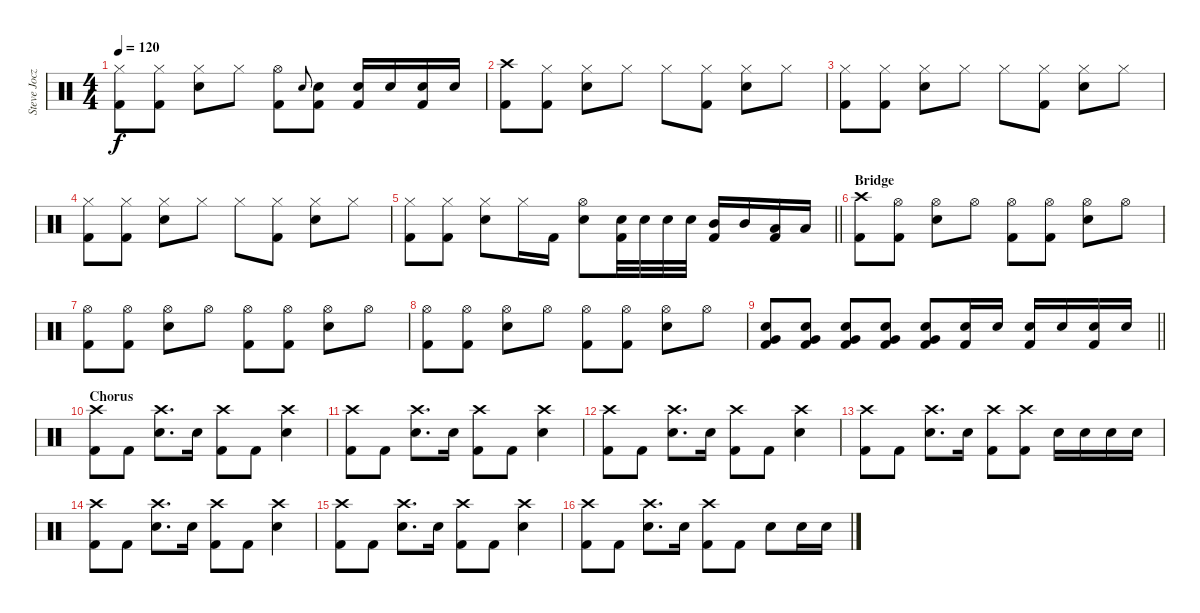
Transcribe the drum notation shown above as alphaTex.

\track ("Steve Jocz" "Steve Jocz") {instrument percussion}
\staff {score}
\articulation defaults
\ts (4 4)
\tempo 120
\clef neutral
\ks c
("Hi-Hat (closed)" "Kick (hit) 2").8{dy f} ("Hi-Hat (closed)" "Kick (hit) 2").8 ("Hi-Hat (closed)" "Snare (hit) 2").8 "Hi-Hat (closed)".8 ("Hi-Hat (open)" "Kick (hit) 2").8 "Snare (hit) 2".8{gr onbeat} ("Snare (hit) 2" "Kick (hit) 2").8 ("Snare (hit) 2" "Kick (hit) 2").16 "Snare (hit) 2".16 ("Snare (hit) 2" "Kick (hit) 2").16 "Snare (hit) 2".16 |
("Crash high (hit)" "Kick (hit) 2").8 ("Hi-Hat (closed)" "Kick (hit) 2").8 ("Hi-Hat (closed)" "Snare (hit) 2").8 "Hi-Hat (closed)".8 "Hi-Hat (closed)".8 ("Hi-Hat (closed)" "Kick (hit) 2").8 ("Hi-Hat (closed)" "Snare (hit) 2").8 "Hi-Hat (closed)".8 |
("Hi-Hat (closed)" "Kick (hit) 2").8 ("Hi-Hat (closed)" "Kick (hit) 2").8 ("Hi-Hat (closed)" "Snare (hit) 2").8 "Hi-Hat (closed)".8 "Hi-Hat (closed)".8 ("Hi-Hat (closed)" "Kick (hit) 2").8 ("Hi-Hat (closed)" "Snare (hit) 2").8 "Hi-Hat (closed)".8 |
("Hi-Hat (closed)" "Kick (hit) 2").8 ("Hi-Hat (closed)" "Kick (hit) 2").8 ("Hi-Hat (closed)" "Snare (hit) 2").8 "Hi-Hat (closed)".8 "Hi-Hat (closed)".8 ("Hi-Hat (closed)" "Kick (hit) 2").8 ("Hi-Hat (closed)" "Snare (hit) 2").8 "Hi-Hat (closed)".8 |
\barLineRight lightlight
("Hi-Hat (closed)" "Kick (hit) 2").8 ("Hi-Hat (closed)" "Kick (hit) 2").8 ("Hi-Hat (closed)" "Snare (hit) 2").8 "Hi-Hat (closed)".16 "Kick (hit) 2".16 ("Hi-Hat (open)" "Snare (hit) 2").8 ("Snare (hit) 2" "Kick (hit) 2").32 "Snare (hit) 2".32 "Snare (hit) 2".32 "Snare (hit) 2".32 ("Mid Tom (hit)" "Kick (hit) 2").16 "Mid Tom (hit)".16 ("Low Tom (hit)" "Kick (hit) 2").16 "Low Tom (hit)".16 |
\section ("" "Bridge")
("Crash high (hit)" "Kick (hit) 2").8 ("Hi-Hat (open)" "Kick (hit) 2").8 ("Hi-Hat (open)" "Snare (hit) 2").8 "Hi-Hat (open)".8 ("Hi-Hat (open)" "Kick (hit) 2").8 ("Hi-Hat (open)" "Kick (hit) 2").8 ("Hi-Hat (open)" "Snare (hit) 2").8 "Hi-Hat (open)".8 |
("Hi-Hat (open)" "Kick (hit) 2").8 ("Hi-Hat (open)" "Kick (hit) 2").8 ("Hi-Hat (open)" "Snare (hit) 2").8 "Hi-Hat (open)".8 ("Hi-Hat (open)" "Kick (hit) 2").8 ("Hi-Hat (open)" "Kick (hit) 2").8 ("Hi-Hat (open)" "Snare (hit) 2").8 "Hi-Hat (open)".8 |
("Hi-Hat (open)" "Kick (hit) 2").8 ("Hi-Hat (open)" "Kick (hit) 2").8 ("Hi-Hat (open)" "Snare (hit) 2").8 "Hi-Hat (open)".8 ("Hi-Hat (open)" "Kick (hit) 2").8 ("Hi-Hat (open)" "Kick (hit) 2").8 ("Hi-Hat (open)" "Snare (hit) 2").8 "Hi-Hat (open)".8 |
\barLineRight lightlight
("Snare (hit) 2" "Very Low Tom (hit)" "Kick (hit) 2").8 ("Snare (hit) 2" "Very Low Tom (hit)" "Kick (hit) 2").8 ("Snare (hit) 2" "Very Low Tom (hit)" "Kick (hit) 2").8 ("Snare (hit) 2" "Very Low Tom (hit)" "Kick (hit) 2").8 ("Snare (hit) 2" "Very Low Tom (hit)" "Kick (hit) 2").8 ("Snare (hit) 2" "Kick (hit) 2").16 "Snare (hit) 2".16 ("Snare (hit) 2" "Kick (hit) 2").16 "Snare (hit) 2".16 ("Snare (hit) 2" "Kick (hit) 2").16 "Snare (hit) 2".16 |
\section ("" "Chorus")
("Crash high (hit)" "Kick (hit) 2").8 "Kick (hit) 2".8 ("Crash high (hit)" "Snare (hit) 2").8{d} "Snare (hit) 2".16 ("Crash high (hit)" "Kick (hit) 2").8 "Kick (hit) 2".8 ("Crash high (hit)" "Snare (hit) 2").4 |
("Crash high (hit)" "Kick (hit) 2").8 "Kick (hit) 2".8 ("Crash high (hit)" "Snare (hit) 2").8{d} "Snare (hit) 2".16 ("Crash high (hit)" "Kick (hit) 2").8 "Kick (hit) 2".8 ("Crash high (hit)" "Snare (hit) 2").4 |
("Crash high (hit)" "Kick (hit) 2").8 "Kick (hit) 2".8 ("Crash high (hit)" "Snare (hit) 2").8{d} "Snare (hit) 2".16 ("Crash high (hit)" "Kick (hit) 2").8 "Kick (hit) 2".8 ("Crash high (hit)" "Snare (hit) 2").4 |
("Crash high (hit)" "Kick (hit) 2").8 "Kick (hit) 2".8 ("Crash high (hit)" "Snare (hit) 2").8{d} "Snare (hit) 2".16 ("Crash high (hit)" "Kick (hit) 2").8 ("Crash high (hit)" "Kick (hit) 2").8 "Snare (hit) 2".16 "Snare (hit) 2".16 "Snare (hit) 2".16 "Snare (hit) 2".16 |
("Crash high (hit)" "Kick (hit) 2").8 "Kick (hit) 2".8 ("Crash high (hit)" "Snare (hit) 2").8{d} "Snare (hit) 2".16 ("Crash high (hit)" "Kick (hit) 2").8 "Kick (hit) 2".8 ("Crash high (hit)" "Snare (hit) 2").4 |
("Crash high (hit)" "Kick (hit) 2").8 "Kick (hit) 2".8 ("Crash high (hit)" "Snare (hit) 2").8{d} "Snare (hit) 2".16 ("Crash high (hit)" "Kick (hit) 2").8 "Kick (hit) 2".8 ("Crash high (hit)" "Snare (hit) 2").4 |
("Crash high (hit)" "Kick (hit) 2").8 "Kick (hit) 2".8 ("Crash high (hit)" "Snare (hit) 2").8{d} "Snare (hit) 2".16 ("Crash high (hit)" "Kick (hit) 2").8 "Kick (hit) 2".8 "Snare (hit) 2".8 "Snare (hit) 2".16 "Snare (hit) 2".16
